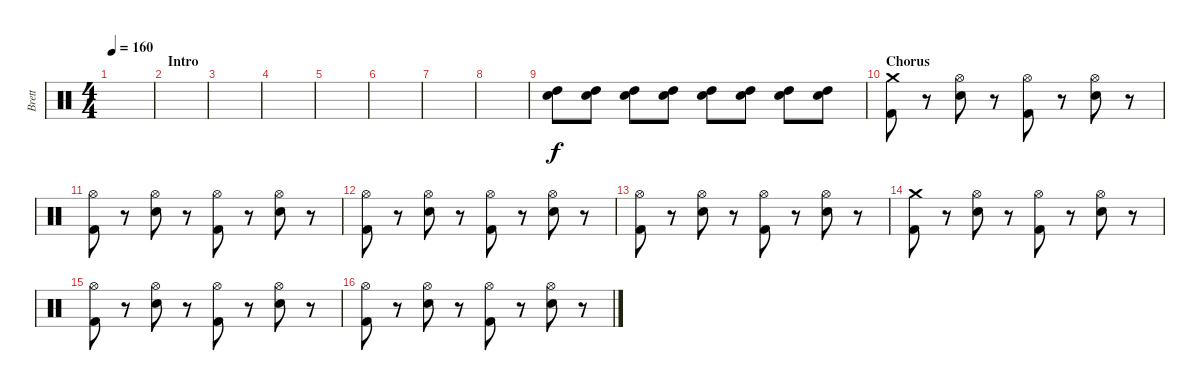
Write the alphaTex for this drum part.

\track ("Brett" "Brett") {instrument percussion}
\staff {score}
\articulation defaults
\ts (4 4)
\tempo 160
\clef neutral
\ks c
|
\section ("" "Intro")
|
|
|
|
|
|
|
("High Tom (hit)" "Snare (hit) 2").8 ("High Tom (hit)" "Snare (hit) 2").8 ("High Tom (hit)" "Snare (hit) 2").8 ("High Tom (hit)" "Snare (hit) 2").8 ("High Tom (hit)" "Snare (hit) 2").8 ("High Tom (hit)" "Snare (hit) 2").8 ("High Tom (hit)" "Snare (hit) 2").8 ("High Tom (hit)" "Snare (hit) 2").8 |
\section ("" "Chorus")
("Crash medium (hit)" "Kick (hit) 2").8 r.8 ("Hi-Hat (open)" "Snare (hit) 2").8 r.8 ("Hi-Hat (open)" "Kick (hit) 2").8 r.8 ("Hi-Hat (open)" "Snare (hit) 2").8 r.8 |
("Hi-Hat (open)" "Kick (hit) 2").8 r.8 ("Hi-Hat (open)" "Snare (hit) 2").8 r.8 ("Hi-Hat (open)" "Kick (hit) 2").8 r.8 ("Hi-Hat (open)" "Snare (hit) 2").8 r.8 |
("Hi-Hat (open)" "Kick (hit) 2").8 r.8 ("Hi-Hat (open)" "Snare (hit) 2").8 r.8 ("Hi-Hat (open)" "Kick (hit) 2").8 r.8 ("Hi-Hat (open)" "Snare (hit) 2").8 r.8 |
("Hi-Hat (open)" "Kick (hit) 2").8 r.8 ("Hi-Hat (open)" "Snare (hit) 2").8 r.8 ("Hi-Hat (open)" "Kick (hit) 2").8 r.8 ("Hi-Hat (open)" "Snare (hit) 2").8 r.8 |
("Crash medium (hit)" "Kick (hit) 2").8 r.8 ("Hi-Hat (open)" "Snare (hit) 2").8 r.8 ("Hi-Hat (open)" "Kick (hit) 2").8 r.8 ("Hi-Hat (open)" "Snare (hit) 2").8 r.8 |
("Hi-Hat (open)" "Kick (hit) 2").8 r.8 ("Hi-Hat (open)" "Snare (hit) 2").8 r.8 ("Hi-Hat (open)" "Kick (hit) 2").8 r.8 ("Hi-Hat (open)" "Snare (hit) 2").8 r.8 |
("Hi-Hat (open)" "Kick (hit) 2").8 r.8 ("Hi-Hat (open)" "Snare (hit) 2").8 r.8 ("Hi-Hat (open)" "Kick (hit) 2").8 r.8 ("Hi-Hat (open)" "Snare (hit) 2").8 r.8
